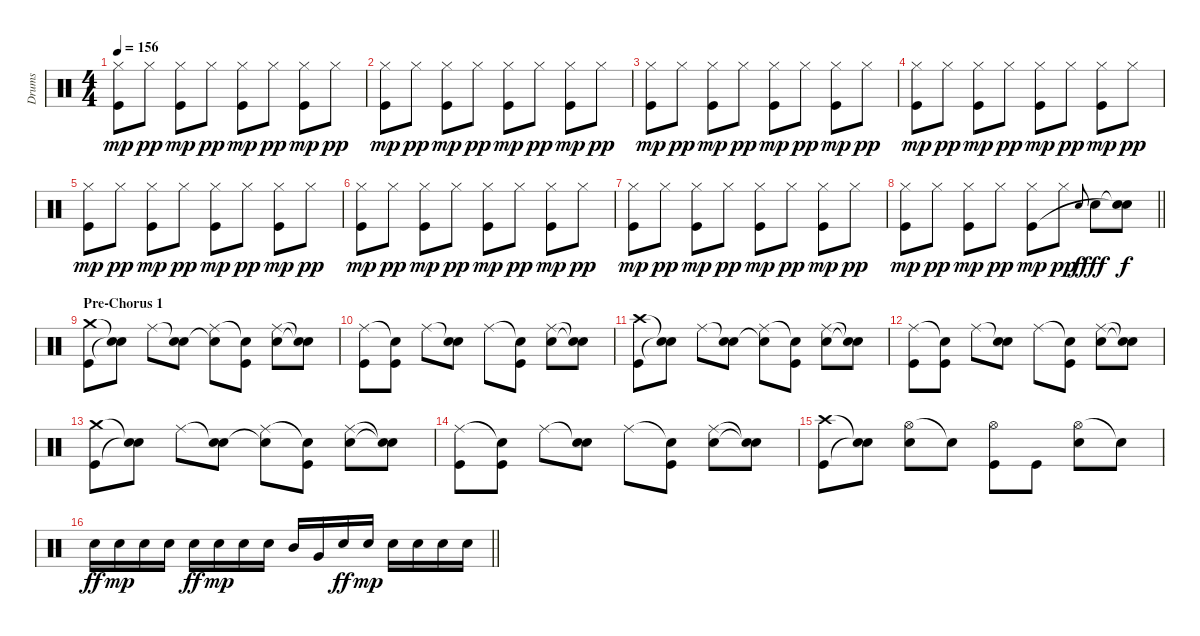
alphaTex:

\track ("Drums" "Drums") {instrument percussion}
\staff {score}
\articulation defaults
\ts (4 4)
\tempo 156
\clef neutral
\ks c
("Hi-Hat (closed)" "Kick (hit)").8{dy mp} "Hi-Hat (closed)".8{dy pp} ("Hi-Hat (closed)" "Kick (hit)").8{dy mp} "Hi-Hat (closed)".8{dy pp} ("Hi-Hat (closed)" "Kick (hit)").8{dy mp} "Hi-Hat (closed)".8{dy pp} ("Hi-Hat (closed)" "Kick (hit)").8{dy mp} "Hi-Hat (closed)".8{dy pp} |
("Hi-Hat (closed)" "Kick (hit)").8{dy mp} "Hi-Hat (closed)".8{dy pp} ("Hi-Hat (closed)" "Kick (hit)").8{dy mp} "Hi-Hat (closed)".8{dy pp} ("Hi-Hat (closed)" "Kick (hit)").8{dy mp} "Hi-Hat (closed)".8{dy pp} ("Hi-Hat (closed)" "Kick (hit)").8{dy mp} "Hi-Hat (closed)".8{dy pp} |
("Hi-Hat (closed)" "Kick (hit)").8{dy mp} "Hi-Hat (closed)".8{dy pp} ("Hi-Hat (closed)" "Kick (hit)").8{dy mp} "Hi-Hat (closed)".8{dy pp} ("Hi-Hat (closed)" "Kick (hit)").8{dy mp} "Hi-Hat (closed)".8{dy pp} ("Hi-Hat (closed)" "Kick (hit)").8{dy mp} "Hi-Hat (closed)".8{dy pp} |
("Hi-Hat (closed)" "Kick (hit)").8{dy mp} "Hi-Hat (closed)".8{dy pp} ("Hi-Hat (closed)" "Kick (hit)").8{dy mp} "Hi-Hat (closed)".8{dy pp} ("Hi-Hat (closed)" "Kick (hit)").8{dy mp} "Hi-Hat (closed)".8{dy pp} ("Hi-Hat (closed)" "Kick (hit)").8{dy mp} "Hi-Hat (closed)".8{dy pp} |
("Hi-Hat (closed)" "Kick (hit)").8{dy mp} "Hi-Hat (closed)".8{dy pp} ("Hi-Hat (closed)" "Kick (hit)").8{dy mp} "Hi-Hat (closed)".8{dy pp} ("Hi-Hat (closed)" "Kick (hit)").8{dy mp} "Hi-Hat (closed)".8{dy pp} ("Hi-Hat (closed)" "Kick (hit)").8{dy mp} "Hi-Hat (closed)".8{dy pp} |
("Hi-Hat (closed)" "Kick (hit)").8{dy mp} "Hi-Hat (closed)".8{dy pp} ("Hi-Hat (closed)" "Kick (hit)").8{dy mp} "Hi-Hat (closed)".8{dy pp} ("Hi-Hat (closed)" "Kick (hit)").8{dy mp} "Hi-Hat (closed)".8{dy pp} ("Hi-Hat (closed)" "Kick (hit)").8{dy mp} "Hi-Hat (closed)".8{dy pp} |
("Hi-Hat (closed)" "Kick (hit)").8{dy mp} "Hi-Hat (closed)".8{dy pp} ("Hi-Hat (closed)" "Kick (hit)").8{dy mp} "Hi-Hat (closed)".8{dy pp} ("Hi-Hat (closed)" "Kick (hit)").8{dy mp} "Hi-Hat (closed)".8{dy pp} ("Hi-Hat (closed)" "Kick (hit)").8{dy mp} "Hi-Hat (closed)".8{dy pp} |
\barLineRight lightlight
("Hi-Hat (closed)" "Kick (hit)").8{dy mp} "Hi-Hat (closed)".8{dy pp} ("Hi-Hat (closed)" "Kick (hit)").8{dy mp} "Hi-Hat (closed)".8{dy pp} ("Hi-Hat (closed)" "Kick (hit)").8{dy mp} "Hi-Hat (closed)".8{dy pp} "Snare (hit) 2".8{gr onbeat dy f} "Snare (hit) 2".8{dy fff} ("Snare (hit)"{t} "Snare (hit)"{t}).8{dy f} |
\section ("" "Pre-Chorus 1")
("Crash medium (hit)" "Kick (hit)").8 ("Snare (hit)"{t} "Snare (hit)"{t}).8 "Ride (middle)".8 ("Snare (hit)"{t} "Snare (hit) 2").8 ("Ride (middle)" "Snare (hit)"{t}).8 ("Snare (hit)"{t} "Kick (hit)").8 ("Ride (middle)" "Snare (hit) 2").8 ("Snare (hit)"{t} "Snare (hit)"{t}).8 |
("Ride (middle)" "Kick (hit)").8 ("Snare (hit)"{t} "Kick (hit)").8 "Ride (middle)".8 ("Snare (hit)"{t} "Snare (hit) 2").8 "Ride (middle)".8 ("Snare (hit)"{t} "Kick (hit)").8 ("Ride (middle)" "Snare (hit) 2").8 ("Snare (hit)"{t} "Snare (hit)"{t}).8 |
("Crash high (hit)" "Kick (hit)").8 ("Snare (hit)"{t} "Snare (hit)"{t}).8 "Ride (middle)".8 ("Snare (hit)"{t} "Snare (hit) 2").8 ("Ride (middle)" "Snare (hit)"{t}).8 ("Snare (hit)"{t} "Kick (hit)").8 ("Ride (middle)" "Snare (hit) 2").8 ("Snare (hit)"{t} "Snare (hit)"{t}).8 |
("Ride (middle)" "Kick (hit)").8 ("Snare (hit)"{t} "Kick (hit)").8 "Ride (middle)".8 ("Snare (hit)"{t} "Snare (hit) 2").8 "Ride (middle)".8 ("Snare (hit)"{t} "Kick (hit)").8 ("Ride (middle)" "Snare (hit) 2").8 ("Snare (hit)"{t} "Snare (hit)"{t}).8 |
("Crash medium (hit)" "Kick (hit)").8 ("Snare (hit)"{t} "Snare (hit)"{t}).8 "Ride (middle)".8 ("Snare (hit)"{t} "Snare (hit) 2").8 ("Ride (middle)" "Snare (hit)"{t}).8 ("Snare (hit)"{t} "Kick (hit)").8 ("Ride (middle)" "Snare (hit) 2").8 ("Snare (hit)"{t} "Snare (hit)"{t}).8 |
("Ride (middle)" "Kick (hit)").8 ("Snare (hit)"{t} "Kick (hit)").8 "Ride (middle)".8 ("Snare (hit)"{t} "Snare (hit) 2").8 "Ride (middle)".8 ("Snare (hit)"{t} "Kick (hit)").8 ("Ride (middle)" "Snare (hit) 2").8 ("Snare (hit)"{t} "Snare (hit)"{t}).8 |
("Crash high (hit)" "Kick (hit)").8 ("Snare (hit)"{t} "Snare (hit)"{t}).8 ("Hi-Hat (open)" "Snare (hit) 2").8 "Snare (hit)"{t}.8 ("Hi-Hat (open)" "Kick (hit)").8 "Kick (hit)".8 ("Hi-Hat (open)" "Snare (hit) 2").8 "Snare (hit)"{t}.8 |
\barLineRight lightlight "Snare (hit) 2".16{dy ff} "Snare (hit) 2".16{dy mp} "Snare (hit) 2".16 "Snare (hit) 2".16 "Snare (hit) 2".16{dy ff} "Snare (hit) 2".16{dy mp} "Snare (hit) 2".16 "Snare (hit) 2".16 "Mid Tom (hit)".16 "Very Low Tom (hit)".16 "Snare (hit) 2".16{dy ff} "Snare (hit) 2".16{dy mp} "Snare (hit) 2".16 "Snare (hit) 2".16 "Snare (hit) 2".16 "Snare (hit) 2".16
